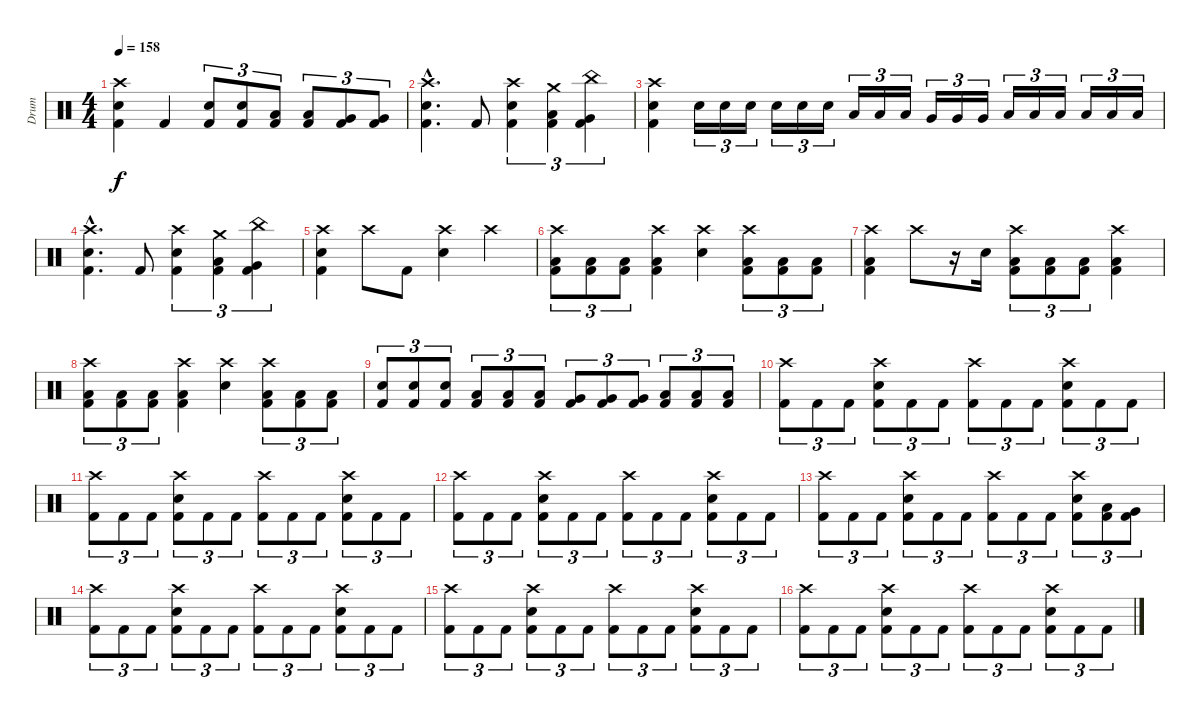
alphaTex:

\track ("Drum" "Drum") {instrument percussion}
\staff {score}
\articulation defaults
\ts (4 4)
\tempo 158
\clef neutral
\ks c
("Crash high (hit)" "Electric Snare (hit)" "Kick (hit) 2").4{dy f} "Kick (hit) 2".4 ("Electric Snare (hit)" "Kick (hit) 2").8{tu (3 2)} ("Electric Snare (hit)" "Kick (hit) 2").8{tu (3 2)} ("Low Tom (hit)" "Kick (hit) 2").8{tu (3 2)} ("Low Tom (hit)" "Kick (hit) 2").8{tu (3 2)} ("Very Low Tom (hit)" "Kick (hit) 2").8{tu (3 2)} ("Very Low Tom (hit)" "Kick (hit) 2").8{tu (3 2)} |
("Crash high (hit)"{hac} "Electric Snare (hit)"{hac} "Kick (hit) 2"{hac}).4{d} "Kick (hit) 2".8 ("Crash high (hit)" "Electric Snare (hit)" "Kick (hit) 2").4{tu (3 2)} ("Crash medium (hit)" "Low Tom (hit)" "Kick (hit) 2").4{tu (3 2)} ("China (hit)" "Very Low Tom (hit)" "Kick (hit) 2").4{tu (3 2)} |
("Crash high (hit)" "Electric Snare (hit)" "Kick (hit) 2").4 "Electric Snare (hit)".16{tu (3 2)} "Electric Snare (hit)".16{tu (3 2)} "Electric Snare (hit)".16{tu (3 2)} "Electric Snare (hit)".16{tu (3 2)} "Electric Snare (hit)".16{tu (3 2)} "Electric Snare (hit)".16{tu (3 2)} "Low Tom (hit)".16{tu (3 2)} "Low Tom (hit)".16{tu (3 2)} "Low Tom (hit)".16{tu (3 2)} "Very Low Tom (hit)".16{tu (3 2)} "Very Low Tom (hit)".16{tu (3 2)} "Very Low Tom (hit)".16{tu (3 2)} "Low Floor Tom (hit)".16{tu (3 2)} "Low Floor Tom (hit)".16{tu (3 2)} "Low Floor Tom (hit)".16{tu (3 2)} "Low Floor Tom (hit)".16{tu (3 2)} "Low Floor Tom (hit)".16{tu (3 2)} "Low Floor Tom (hit)".16{tu (3 2)} |
("Crash high (hit)"{hac} "Electric Snare (hit)"{hac} "Kick (hit) 2"{hac}).4{d} "Kick (hit) 2".8 ("Crash high (hit)" "Electric Snare (hit)" "Kick (hit) 2").4{tu (3 2)} ("Crash medium (hit)" "Low Tom (hit)" "Kick (hit) 2").4{tu (3 2)} ("China (hit)" "Very Low Tom (hit)" "Kick (hit) 2").4{tu (3 2)} |
("Crash high (hit)" "Electric Snare (hit)" "Kick (hit) 2").4 "Crash high (hit)".8 "Kick (hit) 2".8 ("Crash high (hit)" "Electric Snare (hit)").4 "Crash high (hit)".4 |
("Crash high (hit)" "Low Floor Tom (hit)" "Kick (hit) 2").8{tu (3 2)} ("Low Floor Tom (hit)" "Kick (hit) 2").8{tu (3 2)} ("Low Floor Tom (hit)" "Kick (hit) 2").8{tu (3 2)} ("Crash high (hit)" "Low Floor Tom (hit)" "Kick (hit) 2").4 ("Crash high (hit)" "Electric Snare (hit)").4 ("Crash high (hit)" "Low Floor Tom (hit)" "Kick (hit) 2").8{tu (3 2)} ("Low Floor Tom (hit)" "Kick (hit) 2").8{tu (3 2)} ("Low Floor Tom (hit)" "Kick (hit) 2").8{tu (3 2)} |
("Crash high (hit)" "Low Floor Tom (hit)" "Kick (hit) 2").4 "Crash high (hit)".8 r.16 "Electric Snare (hit)".16 ("Crash high (hit)" "Low Floor Tom (hit)" "Kick (hit) 2").8{tu (3 2)} ("Low Floor Tom (hit)" "Kick (hit) 2").8{tu (3 2)} ("Low Floor Tom (hit)" "Kick (hit) 2").8{tu (3 2)} ("Crash high (hit)" "Low Floor Tom (hit)" "Kick (hit) 2").4 |
("Crash high (hit)" "Low Floor Tom (hit)" "Kick (hit) 2").8{tu (3 2)} ("Low Floor Tom (hit)" "Kick (hit) 2").8{tu (3 2)} ("Low Floor Tom (hit)" "Kick (hit) 2").8{tu (3 2)} ("Crash high (hit)" "Low Floor Tom (hit)" "Kick (hit) 2").4 ("Crash high (hit)" "Electric Snare (hit)").4 ("Crash high (hit)" "Low Floor Tom (hit)" "Kick (hit) 2").8{tu (3 2)} ("Low Floor Tom (hit)" "Kick (hit) 2").8{tu (3 2)} ("Low Floor Tom (hit)" "Kick (hit) 2").8{tu (3 2)} |
("Electric Snare (hit)" "Kick (hit) 2").8{tu (3 2)} ("Electric Snare (hit)" "Kick (hit) 2").8{tu (3 2)} ("Electric Snare (hit)" "Kick (hit) 2").8{tu (3 2)} ("Low Tom (hit)" "Kick (hit) 2").8{tu (3 2)} ("Low Tom (hit)" "Kick (hit) 2").8{tu (3 2)} ("Low Tom (hit)" "Kick (hit) 2").8{tu (3 2)} ("Very Low Tom (hit)" "Kick (hit) 2").8{tu (3 2)} ("Very Low Tom (hit)" "Kick (hit) 2").8{tu (3 2)} ("Very Low Tom (hit)" "Kick (hit) 2").8{tu (3 2)} ("Low Floor Tom (hit)" "Kick (hit) 2").8{tu (3 2)} ("Low Floor Tom (hit)" "Kick (hit) 2").8{tu (3 2)} ("Low Floor Tom (hit)" "Kick (hit) 2").8{tu (3 2)} |
("Crash high (hit)" "Kick (hit) 2").8{tu (3 2)} "Kick (hit) 2".8{tu (3 2)} "Kick (hit) 2".8{tu (3 2)} ("Crash high (hit)" "Electric Snare (hit)" "Kick (hit) 2").8{tu (3 2)} "Kick (hit) 2".8{tu (3 2)} "Kick (hit) 2".8{tu (3 2)} ("Crash high (hit)" "Kick (hit) 2").8{tu (3 2)} "Kick (hit) 2".8{tu (3 2)} "Kick (hit) 2".8{tu (3 2)} ("Crash high (hit)" "Electric Snare (hit)" "Kick (hit) 2").8{tu (3 2)} "Kick (hit) 2".8{tu (3 2)} "Kick (hit) 2".8{tu (3 2)} |
("Crash high (hit)" "Kick (hit) 2").8{tu (3 2)} "Kick (hit) 2".8{tu (3 2)} "Kick (hit) 2".8{tu (3 2)} ("Crash high (hit)" "Electric Snare (hit)" "Kick (hit) 2").8{tu (3 2)} "Kick (hit) 2".8{tu (3 2)} "Kick (hit) 2".8{tu (3 2)} ("Crash high (hit)" "Kick (hit) 2").8{tu (3 2)} "Kick (hit) 2".8{tu (3 2)} "Kick (hit) 2".8{tu (3 2)} ("Crash high (hit)" "Electric Snare (hit)" "Kick (hit) 2").8{tu (3 2)} "Kick (hit) 2".8{tu (3 2)} "Kick (hit) 2".8{tu (3 2)} |
("Crash high (hit)" "Kick (hit) 2").8{tu (3 2)} "Kick (hit) 2".8{tu (3 2)} "Kick (hit) 2".8{tu (3 2)} ("Crash high (hit)" "Electric Snare (hit)" "Kick (hit) 2").8{tu (3 2)} "Kick (hit) 2".8{tu (3 2)} "Kick (hit) 2".8{tu (3 2)} ("Crash high (hit)" "Kick (hit) 2").8{tu (3 2)} "Kick (hit) 2".8{tu (3 2)} "Kick (hit) 2".8{tu (3 2)} ("Crash high (hit)" "Electric Snare (hit)" "Kick (hit) 2").8{tu (3 2)} "Kick (hit) 2".8{tu (3 2)} "Kick (hit) 2".8{tu (3 2)} |
("Crash high (hit)" "Kick (hit) 2").8{tu (3 2)} "Kick (hit) 2".8{tu (3 2)} "Kick (hit) 2".8{tu (3 2)} ("Crash high (hit)" "Electric Snare (hit)" "Kick (hit) 2").8{tu (3 2)} "Kick (hit) 2".8{tu (3 2)} "Kick (hit) 2".8{tu (3 2)} ("Crash high (hit)" "Kick (hit) 2").8{tu (3 2)} "Kick (hit) 2".8{tu (3 2)} "Kick (hit) 2".8{tu (3 2)} ("Crash high (hit)" "Electric Snare (hit)" "Kick (hit) 2").8{tu (3 2)} ("Low Tom (hit)" "Kick (hit) 2").8{tu (3 2)} ("Very Low Tom (hit)" "Kick (hit) 2").8{tu (3 2)} |
("Crash high (hit)" "Kick (hit) 2").8{tu (3 2)} "Kick (hit) 2".8{tu (3 2)} "Kick (hit) 2".8{tu (3 2)} ("Crash high (hit)" "Electric Snare (hit)" "Kick (hit) 2").8{tu (3 2)} "Kick (hit) 2".8{tu (3 2)} "Kick (hit) 2".8{tu (3 2)} ("Crash high (hit)" "Kick (hit) 2").8{tu (3 2)} "Kick (hit) 2".8{tu (3 2)} "Kick (hit) 2".8{tu (3 2)} ("Crash high (hit)" "Electric Snare (hit)" "Kick (hit) 2").8{tu (3 2)} "Kick (hit) 2".8{tu (3 2)} "Kick (hit) 2".8{tu (3 2)} |
("Crash high (hit)" "Kick (hit) 2").8{tu (3 2)} "Kick (hit) 2".8{tu (3 2)} "Kick (hit) 2".8{tu (3 2)} ("Crash high (hit)" "Electric Snare (hit)" "Kick (hit) 2").8{tu (3 2)} "Kick (hit) 2".8{tu (3 2)} "Kick (hit) 2".8{tu (3 2)} ("Crash high (hit)" "Kick (hit) 2").8{tu (3 2)} "Kick (hit) 2".8{tu (3 2)} "Kick (hit) 2".8{tu (3 2)} ("Crash high (hit)" "Electric Snare (hit)" "Kick (hit) 2").8{tu (3 2)} "Kick (hit) 2".8{tu (3 2)} "Kick (hit) 2".8{tu (3 2)} |
("Crash high (hit)" "Kick (hit) 2").8{tu (3 2)} "Kick (hit) 2".8{tu (3 2)} "Kick (hit) 2".8{tu (3 2)} ("Crash high (hit)" "Electric Snare (hit)" "Kick (hit) 2").8{tu (3 2)} "Kick (hit) 2".8{tu (3 2)} "Kick (hit) 2".8{tu (3 2)} ("Crash high (hit)" "Kick (hit) 2").8{tu (3 2)} "Kick (hit) 2".8{tu (3 2)} "Kick (hit) 2".8{tu (3 2)} ("Crash high (hit)" "Electric Snare (hit)" "Kick (hit) 2").8{tu (3 2)} "Kick (hit) 2".8{tu (3 2)} "Kick (hit) 2".8{tu (3 2)}
